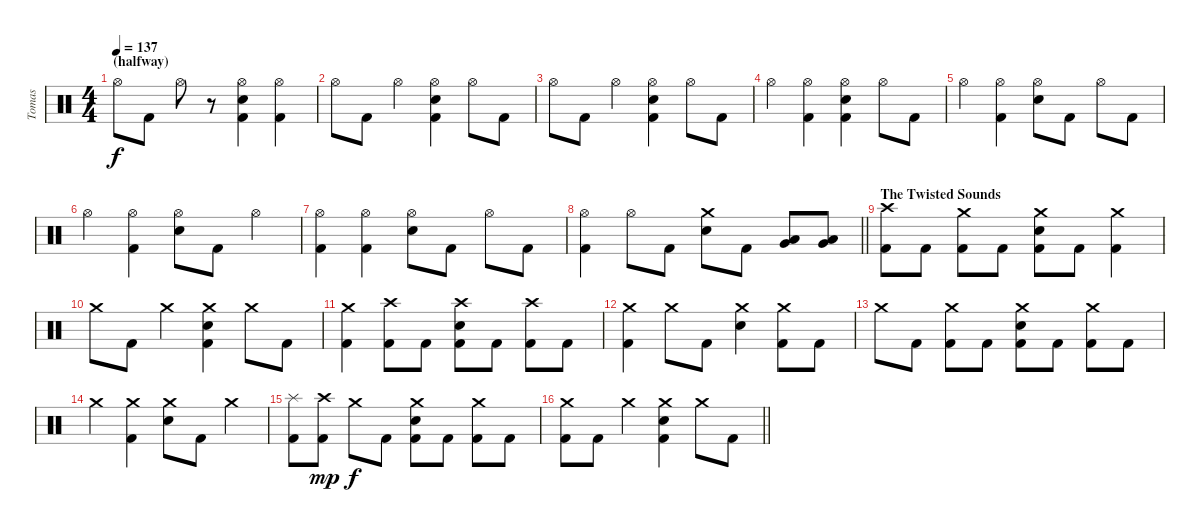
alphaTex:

\track ("Tomas" "Tomas") {instrument percussion}
\staff {score}
\articulation defaults
\ts (4 4)
\section ("" "(halfway)")
\tempo 137
\clef neutral
\ks c "Hi-Hat (open)".8{dy f} "Kick (hit) 2".8 "Hi-Hat (open)".8
r.8 ("Hi-Hat (open)" "Electric Snare (hit)" "Kick (hit) 2").4 ("Hi-Hat (open)" "Kick (hit) 2").4 |
"Hi-Hat (open)".8 "Kick (hit) 2".8 "Hi-Hat (open)".4 ("Hi-Hat (open)" "Electric Snare (hit)" "Kick (hit) 2").4 "Hi-Hat (open)".8 "Kick (hit) 2".8 |
"Hi-Hat (open)".8 "Kick (hit) 2".8 "Hi-Hat (open)".4 ("Hi-Hat (open)" "Electric Snare (hit)" "Kick (hit) 2").4 "Hi-Hat (open)".8 "Kick (hit) 2".8 |
"Hi-Hat (open)".4 ("Hi-Hat (open)" "Kick (hit) 2").4 ("Hi-Hat (open)" "Electric Snare (hit)" "Kick (hit) 2").4 "Hi-Hat (open)".8 "Kick (hit) 2".8 |
"Hi-Hat (open)".4 ("Hi-Hat (open)" "Kick (hit) 2").4 ("Hi-Hat (open)" "Electric Snare (hit)").8 "Kick (hit) 2".8 "Hi-Hat (open)".8 "Kick (hit) 2".8 |
"Hi-Hat (open)".4 ("Hi-Hat (open)" "Kick (hit) 2").4 ("Hi-Hat (open)" "Electric Snare (hit)").8 "Kick (hit) 2".8 "Hi-Hat (open)".4 |
("Hi-Hat (open)" "Kick (hit) 2").4 ("Hi-Hat (open)" "Kick (hit) 2").4 ("Hi-Hat (open)" "Electric Snare (hit)").8 "Kick (hit) 2".8 "Hi-Hat (open)".8 "Kick (hit) 2".8 |
\barLineRight lightlight
("Hi-Hat (open)" "Kick (hit) 2").4 "Hi-Hat (open)".8 "Kick (hit) 2".8 ("Crash medium (hit)" "Electric Snare (hit)").8 "Kick (hit) 2".8 ("Low Tom (hit)" "Very Low Tom (hit)").8 ("Low Tom (hit)" "Very Low Tom (hit)").8 |
\section ("" "The Twisted Sounds")
("Crash high (hit)" "Kick (hit) 2").8 "Kick (hit) 2".8 ("Crash medium (hit)" "Kick (hit) 2").8 "Kick (hit) 2".8 ("Crash medium (hit)" "Electric Snare (hit)" "Kick (hit) 2").8 "Kick (hit) 2".8 ("Crash medium (hit)" "Kick (hit) 2").4 |
"Crash medium (hit)".8 "Kick (hit) 2".8 "Crash medium (hit)".4 ("Crash medium (hit)" "Electric Snare (hit)" "Kick (hit) 2").4 "Crash medium (hit)".8 "Kick (hit) 2".8 |
("Crash medium (hit)" "Kick (hit) 2").4 ("Crash high (hit)" "Kick (hit) 2").8 "Kick (hit) 2".8 ("Crash high (hit)" "Electric Snare (hit)" "Kick (hit) 2").8 "Kick (hit) 2".8 ("Crash high (hit)" "Kick (hit) 2").8 "Kick (hit) 2".8 |
("Crash medium (hit)" "Kick (hit) 2").4 "Crash medium (hit)".8 "Kick (hit) 2".8 ("Crash medium (hit)" "Electric Snare (hit)").4 ("Crash medium (hit)" "Kick (hit) 2").8 "Kick (hit) 2".8 |
"Crash medium (hit)".8 "Kick (hit) 2".8 ("Crash medium (hit)" "Kick (hit) 2").8 "Kick (hit) 2".8 ("Crash medium (hit)" "Electric Snare (hit)" "Kick (hit) 2").8 "Kick (hit) 2".8 ("Crash medium (hit)" "Kick (hit) 2").8 "Kick (hit) 2".8 |
"Crash medium (hit)".4 ("Crash medium (hit)" "Kick (hit) 2").4 ("Crash medium (hit)" "Electric Snare (hit)").8 "Kick (hit) 2".8 "Crash medium (hit)".4 |
("Splash (hit)" "Kick (hit) 2").8 ("Crash high (hit)" "Kick (hit) 2").8{dy mp} "Crash medium (hit)".8{dy f} "Kick (hit) 2".8 ("Crash medium (hit)" "Electric Snare (hit)" "Kick (hit) 2").8 "Kick (hit) 2".8 ("Crash medium (hit)" "Kick (hit) 2").8 "Kick (hit) 2".8 |
\barLineRight lightlight
("Crash medium (hit)" "Kick (hit) 2").8 "Kick (hit) 2".8 "Crash medium (hit)".4 ("Crash medium (hit)" "Electric Snare (hit)" "Kick (hit) 2").4 "Crash medium (hit)".8 "Kick (hit) 2".8
